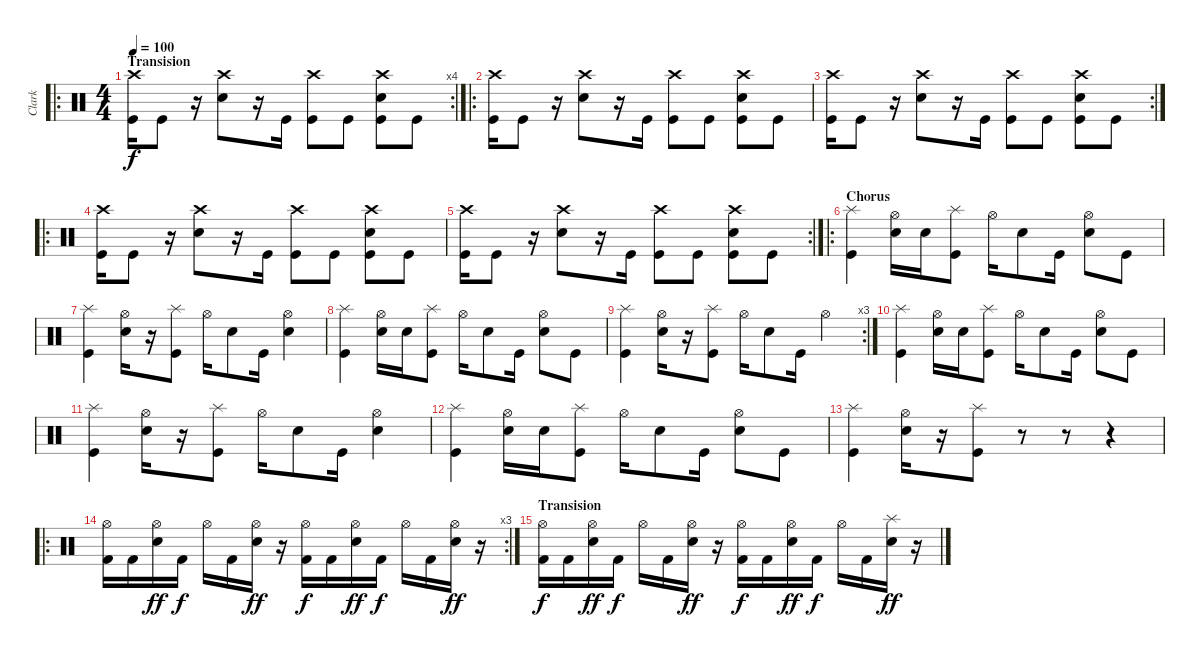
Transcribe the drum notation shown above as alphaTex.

\track ("Clark" "Clark") {instrument percussion}
\staff {score}
\articulation defaults
\ro
\rc 4
\ts (4 4)
\section ("" "Transision")
\tempo 100
\clef neutral
\ks c
("Crash high (hit)" "Kick (hit)").16{dy f} "Kick (hit)".8 r.16 ("Crash high (hit)" "Electric Snare (hit)").8 r.16 "Kick (hit)".16 ("Crash high (hit)" "Kick (hit)").8 "Kick (hit)".8 ("Crash high (hit)" "Electric Snare (hit)" "Kick (hit)").8 "Kick (hit)".8 |
\ro
("Crash high (hit)" "Kick (hit)").16 "Kick (hit)".8 r.16 ("Crash high (hit)" "Electric Snare (hit)").8 r.16 "Kick (hit)".16 ("Crash high (hit)" "Kick (hit)").8 "Kick (hit)".8 ("Crash high (hit)" "Electric Snare (hit)" "Kick (hit)").8 "Kick (hit)".8 |
\rc 2
("Crash high (hit)" "Kick (hit)").16 "Kick (hit)".8 r.16 ("Crash high (hit)" "Electric Snare (hit)").8 r.16 "Kick (hit)".16 ("Crash high (hit)" "Kick (hit)").8 "Kick (hit)".8 ("Crash high (hit)" "Electric Snare (hit)" "Kick (hit)").8 "Kick (hit)".8 |
\ro
("Crash high (hit)" "Kick (hit)").16 "Kick (hit)".8 r.16 ("Crash high (hit)" "Electric Snare (hit)").8 r.16 "Kick (hit)".16 ("Crash high (hit)" "Kick (hit)").8 "Kick (hit)".8 ("Crash high (hit)" "Electric Snare (hit)" "Kick (hit)").8 "Kick (hit)".8 |
\rc 2
("Crash high (hit)" "Kick (hit)").16 "Kick (hit)".8 r.16 ("Crash high (hit)" "Electric Snare (hit)").8 r.16 "Kick (hit)".16 ("Crash high (hit)" "Kick (hit)").8 "Kick (hit)".8 ("Crash high (hit)" "Electric Snare (hit)" "Kick (hit)").8 "Kick (hit)".8 |
\ro
\section ("" "Chorus")
("Splash (hit)" "Kick (hit)").4 ("Hi-Hat (open)" "Electric Snare (hit)").16 "Electric Snare (hit)".16 ("Splash (hit)" "Kick (hit)").8 "Hi-Hat (open)".16 "Electric Snare (hit)".8 "Kick (hit)".16 ("Hi-Hat (open)" "Electric Snare (hit)").8 "Kick (hit)".8 |
("Splash (hit)" "Kick (hit)").4 ("Hi-Hat (open)" "Electric Snare (hit)").16 r.16 ("Splash (hit)" "Kick (hit)").8 "Hi-Hat (open)".16 "Electric Snare (hit)".8 "Kick (hit)".16 ("Hi-Hat (open)" "Electric Snare (hit)").4 |
("Splash (hit)" "Kick (hit)").4 ("Hi-Hat (open)" "Electric Snare (hit)").16 "Electric Snare (hit)".16 ("Splash (hit)" "Kick (hit)").8 "Hi-Hat (open)".16 "Electric Snare (hit)".8 "Kick (hit)".16 ("Hi-Hat (open)" "Electric Snare (hit)").8 "Kick (hit)".8 |
\rc 3
("Splash (hit)" "Kick (hit)").4 ("Hi-Hat (open)" "Electric Snare (hit)").16 r.16 ("Splash (hit)" "Kick (hit)").8 "Hi-Hat (open)".16 "Electric Snare (hit)".8 "Kick (hit)".16 "Hi-Hat (open)".4 |
("Splash (hit)" "Kick (hit)").4 ("Hi-Hat (open)" "Electric Snare (hit)").16 "Electric Snare (hit)".16 ("Splash (hit)" "Kick (hit)").8 "Hi-Hat (open)".16 "Electric Snare (hit)".8 "Kick (hit)".16 ("Hi-Hat (open)" "Electric Snare (hit)").8 "Kick (hit)".8 |
("Splash (hit)" "Kick (hit)").4 ("Hi-Hat (open)" "Electric Snare (hit)").16 r.16 ("Splash (hit)" "Kick (hit)").8 "Hi-Hat (open)".16 "Electric Snare (hit)".8 "Kick (hit)".16 ("Hi-Hat (open)" "Electric Snare (hit)").4 |
("Splash (hit)" "Kick (hit)").4 ("Hi-Hat (open)" "Electric Snare (hit)").16 "Electric Snare (hit)".16 ("Splash (hit)" "Kick (hit)").8 "Hi-Hat (open)".16 "Electric Snare (hit)".8 "Kick (hit)".16 ("Hi-Hat (open)" "Electric Snare (hit)").8 "Kick (hit)".8 |
("Splash (hit)" "Kick (hit)").4 ("Hi-Hat (open)" "Electric Snare (hit)").16 r.16 ("Splash (hit)" "Kick (hit)").8 r.8 r.8 r.4 |
\ro
\rc 3
("Hi-Hat (open)" "Kick (hit) 2").16 "Kick (hit) 2".16 ("Hi-Hat (open)" "Electric Snare (hit)").16{dy ff} "Kick (hit) 2".16{dy f} "Hi-Hat (open)".16 "Kick (hit) 2".16 ("Hi-Hat (open)" "Electric Snare (hit)").16{dy ff} r.16 ("Hi-Hat (open)" "Kick (hit) 2").16{dy f} "Kick (hit) 2".16 ("Hi-Hat (open)" "Electric Snare (hit)").16{dy ff} "Kick (hit) 2".16{dy f} "Hi-Hat (open)".16 "Kick (hit) 2".16 ("Hi-Hat (open)" "Electric Snare (hit)").16{dy ff} r.16 |
\section ("" "Transision")
("Hi-Hat (open)" "Kick (hit) 2").16{dy f} "Kick (hit) 2".16 ("Hi-Hat (open)" "Electric Snare (hit)").16{dy ff} "Kick (hit) 2".16{dy f} "Hi-Hat (open)".16 "Kick (hit) 2".16 ("Hi-Hat (open)" "Electric Snare (hit)").16{dy ff} r.16 ("Hi-Hat (open)" "Kick (hit) 2").16{dy f} "Kick (hit) 2".16 ("Hi-Hat (open)" "Electric Snare (hit)").16{dy ff} "Kick (hit) 2".16{dy f} "Hi-Hat (open)".16 "Kick (hit) 2".16 ("Splash (hit)" "Electric Snare (hit)").16{dy ff} r.16
